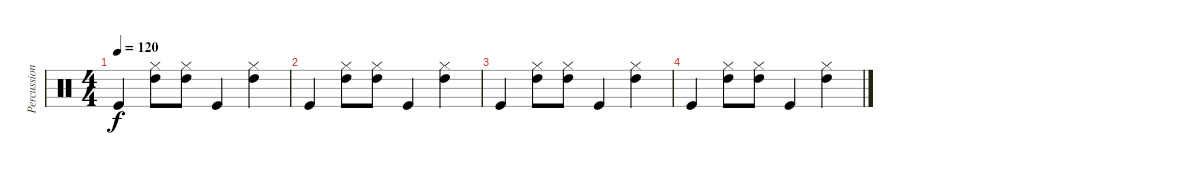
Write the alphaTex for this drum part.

\track ("Percussion" "Percussion") {instrument percussion}
\staff {score}
\articulation defaults
\ts (4 4)
\tempo 120
\clef neutral
\ks c "Kick (hit)".4{dy f}
("Hi-Hat (closed)" "High Tom (hit)").8 ("Hi-Hat (closed)" "High Tom (hit)").8 "Kick (hit)".4 ("Hi-Hat (closed)" "High Tom (hit)").4 |
"Kick (hit)".4 ("Hi-Hat (closed)" "High Tom (hit)").8 ("Hi-Hat (closed)" "High Tom (hit)").8 "Kick (hit)".4 ("Hi-Hat (closed)" "High Tom (hit)").4 |
"Kick (hit)".4 ("Hi-Hat (closed)" "High Tom (hit)").8 ("Hi-Hat (closed)" "High Tom (hit)").8 "Kick (hit)".4 ("Hi-Hat (closed)" "High Tom (hit)").4 |
"Kick (hit)".4 ("Hi-Hat (closed)" "High Tom (hit)").8 ("Hi-Hat (closed)" "High Tom (hit)").8 "Kick (hit)".4 ("Hi-Hat (closed)" "High Tom (hit)").4
